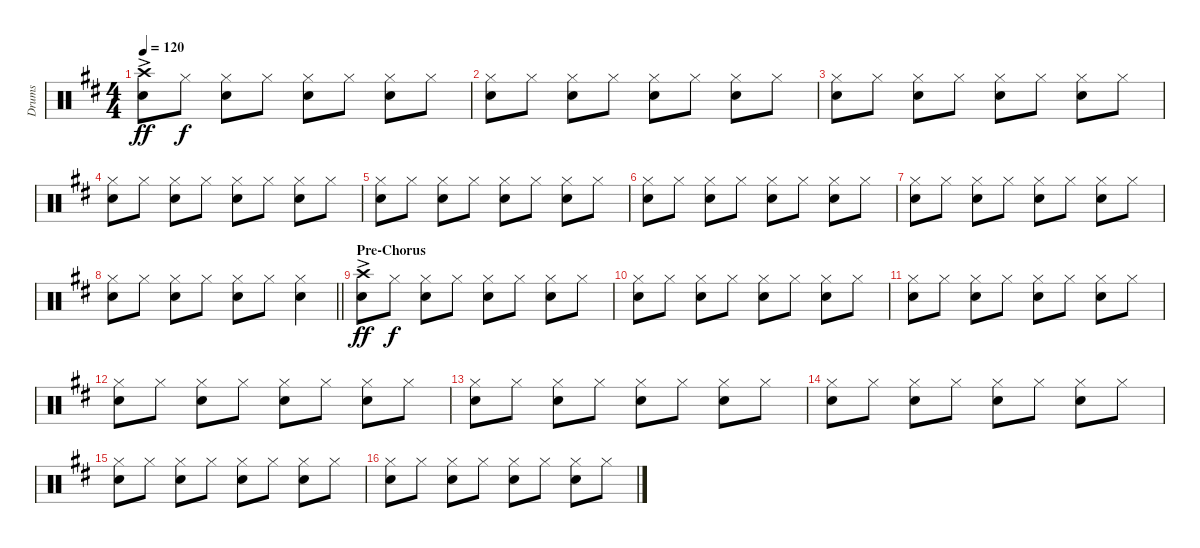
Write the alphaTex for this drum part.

\track ("Drums" "Drums") {instrument percussion}
\staff {score}
\articulation defaults
\ts (4 4)
\tempo 120
\clef neutral
\ks d
("Crash high (hit)"{ac} "Snare (hit) 2").8{dy ff} "Hi-Hat (closed)".8{dy f} ("Hi-Hat (closed)" "Snare (hit) 2").8 "Hi-Hat (closed)".8 ("Hi-Hat (closed)" "Snare (hit) 2").8 "Hi-Hat (closed)".8 ("Hi-Hat (closed)" "Snare (hit) 2").8 "Hi-Hat (closed)".8 |
("Hi-Hat (closed)" "Snare (hit) 2").8 "Hi-Hat (closed)".8 ("Hi-Hat (closed)" "Snare (hit) 2").8 "Hi-Hat (closed)".8 ("Hi-Hat (closed)" "Snare (hit) 2").8 "Hi-Hat (closed)".8 ("Hi-Hat (closed)" "Snare (hit) 2").8 "Hi-Hat (closed)".8 |
("Hi-Hat (closed)" "Snare (hit) 2").8 "Hi-Hat (closed)".8 ("Hi-Hat (closed)" "Snare (hit) 2").8 "Hi-Hat (closed)".8 ("Hi-Hat (closed)" "Snare (hit) 2").8 "Hi-Hat (closed)".8 ("Hi-Hat (closed)" "Snare (hit) 2").8 "Hi-Hat (closed)".8 |
("Hi-Hat (closed)" "Snare (hit) 2").8 "Hi-Hat (closed)".8 ("Hi-Hat (closed)" "Snare (hit) 2").8 "Hi-Hat (closed)".8 ("Hi-Hat (closed)" "Snare (hit) 2").8 "Hi-Hat (closed)".8 ("Hi-Hat (closed)" "Snare (hit) 2").8 "Hi-Hat (closed)".8 |
("Hi-Hat (closed)" "Snare (hit) 2").8 "Hi-Hat (closed)".8 ("Hi-Hat (closed)" "Snare (hit) 2").8 "Hi-Hat (closed)".8 ("Hi-Hat (closed)" "Snare (hit) 2").8 "Hi-Hat (closed)".8 ("Hi-Hat (closed)" "Snare (hit) 2").8 "Hi-Hat (closed)".8 |
("Hi-Hat (closed)" "Snare (hit) 2").8 "Hi-Hat (closed)".8 ("Hi-Hat (closed)" "Snare (hit) 2").8 "Hi-Hat (closed)".8 ("Hi-Hat (closed)" "Snare (hit) 2").8 "Hi-Hat (closed)".8 ("Hi-Hat (closed)" "Snare (hit) 2").8 "Hi-Hat (closed)".8 |
("Hi-Hat (closed)" "Snare (hit) 2").8 "Hi-Hat (closed)".8 ("Hi-Hat (closed)" "Snare (hit) 2").8 "Hi-Hat (closed)".8 ("Hi-Hat (closed)" "Snare (hit) 2").8 "Hi-Hat (closed)".8 ("Hi-Hat (closed)" "Snare (hit) 2").8 "Hi-Hat (closed)".8 |
\barLineRight lightlight
("Hi-Hat (closed)" "Snare (hit) 2").8 "Hi-Hat (closed)".8 ("Hi-Hat (closed)" "Snare (hit) 2").8 "Hi-Hat (closed)".8 ("Hi-Hat (closed)" "Snare (hit) 2").8 "Hi-Hat (closed)".8 ("Hi-Hat (closed)" "Snare (hit) 2").4 |
\section ("" "Pre-Chorus")
("Crash high (hit)"{ac} "Snare (hit) 2").8{dy ff} "Hi-Hat (closed)".8{dy f} ("Hi-Hat (closed)" "Snare (hit) 2").8 "Hi-Hat (closed)".8 ("Hi-Hat (closed)" "Snare (hit) 2").8 "Hi-Hat (closed)".8 ("Hi-Hat (closed)" "Snare (hit) 2").8 "Hi-Hat (closed)".8 |
("Hi-Hat (closed)" "Snare (hit) 2").8 "Hi-Hat (closed)".8 ("Hi-Hat (closed)" "Snare (hit) 2").8 "Hi-Hat (closed)".8 ("Hi-Hat (closed)" "Snare (hit) 2").8 "Hi-Hat (closed)".8 ("Hi-Hat (closed)" "Snare (hit) 2").8 "Hi-Hat (closed)".8 |
("Hi-Hat (closed)" "Snare (hit) 2").8 "Hi-Hat (closed)".8 ("Hi-Hat (closed)" "Snare (hit) 2").8 "Hi-Hat (closed)".8 ("Hi-Hat (closed)" "Snare (hit) 2").8 "Hi-Hat (closed)".8 ("Hi-Hat (closed)" "Snare (hit) 2").8 "Hi-Hat (closed)".8 |
("Hi-Hat (closed)" "Snare (hit) 2").8 "Hi-Hat (closed)".8 ("Hi-Hat (closed)" "Snare (hit) 2").8 "Hi-Hat (closed)".8 ("Hi-Hat (closed)" "Snare (hit) 2").8 "Hi-Hat (closed)".8 ("Hi-Hat (closed)" "Snare (hit) 2").8 "Hi-Hat (closed)".8 |
("Hi-Hat (closed)" "Snare (hit) 2").8 "Hi-Hat (closed)".8 ("Hi-Hat (closed)" "Snare (hit) 2").8 "Hi-Hat (closed)".8 ("Hi-Hat (closed)" "Snare (hit) 2").8 "Hi-Hat (closed)".8 ("Hi-Hat (closed)" "Snare (hit) 2").8 "Hi-Hat (closed)".8 |
("Hi-Hat (closed)" "Snare (hit) 2").8 "Hi-Hat (closed)".8 ("Hi-Hat (closed)" "Snare (hit) 2").8 "Hi-Hat (closed)".8 ("Hi-Hat (closed)" "Snare (hit) 2").8 "Hi-Hat (closed)".8 ("Hi-Hat (closed)" "Snare (hit) 2").8 "Hi-Hat (closed)".8 |
("Hi-Hat (closed)" "Snare (hit) 2").8 "Hi-Hat (closed)".8 ("Hi-Hat (closed)" "Snare (hit) 2").8 "Hi-Hat (closed)".8 ("Hi-Hat (closed)" "Snare (hit) 2").8 "Hi-Hat (closed)".8 ("Hi-Hat (closed)" "Snare (hit) 2").8 "Hi-Hat (closed)".8 |
("Hi-Hat (closed)" "Snare (hit) 2").8 "Hi-Hat (closed)".8 ("Hi-Hat (closed)" "Snare (hit) 2").8 "Hi-Hat (closed)".8 ("Hi-Hat (closed)" "Snare (hit) 2").8 "Hi-Hat (closed)".8 ("Hi-Hat (closed)" "Snare (hit) 2").8 "Hi-Hat (closed)".8
